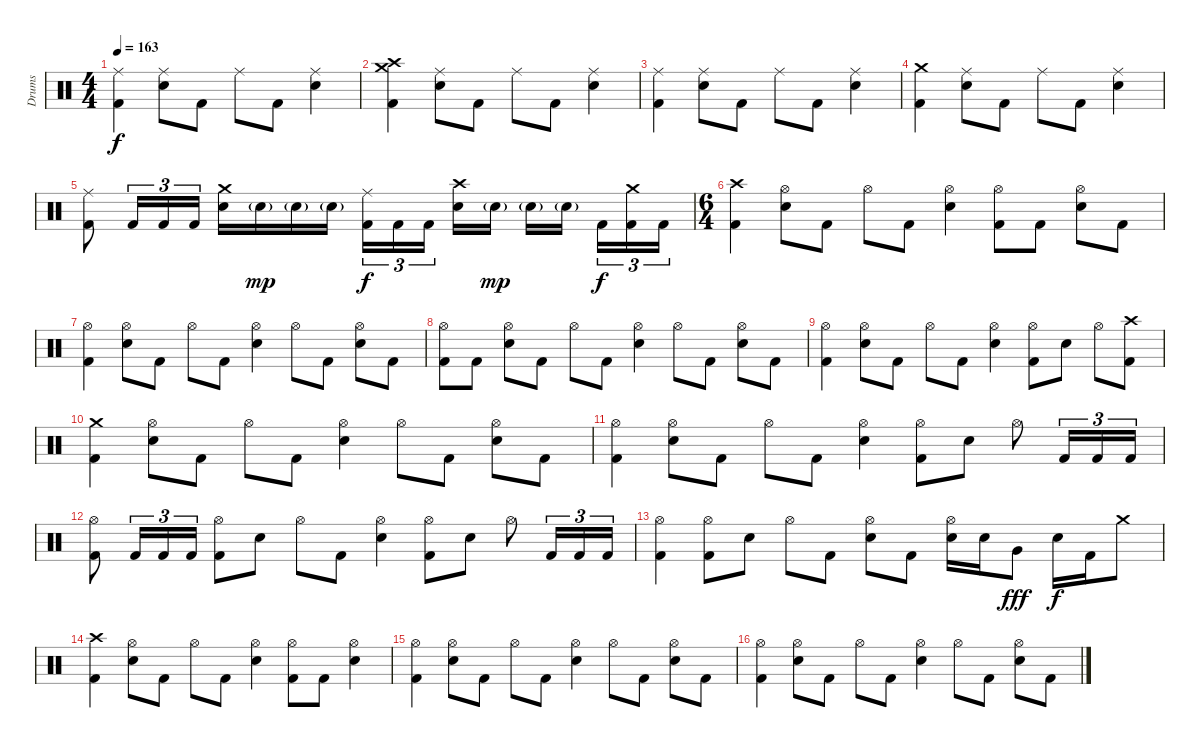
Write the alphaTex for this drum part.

\track ("Drums" "Drums") {instrument percussion}
\staff {score}
\articulation defaults
\ts (4 4)
\tempo 163
\clef neutral
\ks c
("Ride (middle)" "Kick (hit) 2").4{dy f} ("Ride (middle)" "Electric Snare (hit)").8 "Kick (hit) 2".8 "Ride (middle)".8 "Kick (hit) 2".8 ("Ride (middle)" "Electric Snare (hit)").4 |
("Crash high (hit)" "Crash medium (hit)" "Kick (hit) 2").4 ("Ride (middle)" "Electric Snare (hit)").8 "Kick (hit) 2".8 "Ride (middle)".8 "Kick (hit) 2".8 ("Ride (middle)" "Electric Snare (hit)").4 |
("Ride (middle)" "Kick (hit) 2").4 ("Ride (middle)" "Electric Snare (hit)").8 "Kick (hit) 2".8 "Ride (middle)".8 "Kick (hit) 2".8 ("Ride (middle)" "Electric Snare (hit)").4 |
("Crash medium (hit)" "Kick (hit) 2").4 ("Ride (middle)" "Electric Snare (hit)").8 "Kick (hit) 2".8 "Ride (middle)".8 "Kick (hit) 2".8 ("Ride (middle)" "Electric Snare (hit)").4 |
("Ride (middle)" "Kick (hit) 2").8 "Kick (hit) 2".16{tu (3 2)} "Kick (hit) 2".16{tu (3 2)} "Kick (hit) 2".16{tu (3 2)} ("Crash medium (hit)" "Electric Snare (hit)").16 "Electric Snare (hit)"{g}.16{dy mp} "Electric Snare (hit)"{g}.16 "Electric Snare (hit)"{g}.16 ("Ride (middle)" "Kick (hit) 2").16{tu (3 2) dy f} "Kick (hit) 2".16{tu (3 2)} "Kick (hit) 2".16{tu (3 2)} ("Crash high (hit)" "Electric Snare (hit)").16 "Electric Snare (hit)"{g}.16{dy mp} "Electric Snare (hit)"{g}.16 "Electric Snare (hit)"{g}.16 "Kick (hit) 2".16{tu (3 2) dy f} ("Crash medium (hit)" "Kick (hit) 2").16{tu (3 2)} "Kick (hit) 2".16{tu (3 2)} |
\ts (6 4)
("Crash high (hit)" "Kick (hit) 2").4 ("Hi-Hat (open)" "Electric Snare (hit)").8 "Kick (hit) 2".8 "Hi-Hat (open)".8 "Kick (hit) 2".8 ("Hi-Hat (open)" "Electric Snare (hit)").4 ("Hi-Hat (open)" "Kick (hit) 2").8 "Kick (hit) 2".8 ("Hi-Hat (open)" "Electric Snare (hit)").8 "Kick (hit) 2".8 |
("Hi-Hat (open)" "Kick (hit) 2").4 ("Hi-Hat (open)" "Electric Snare (hit)").8 "Kick (hit) 2".8 "Hi-Hat (open)".8 "Kick (hit) 2".8 ("Hi-Hat (open)" "Electric Snare (hit)").4 "Hi-Hat (open)".8 "Kick (hit) 2".8 ("Hi-Hat (open)" "Electric Snare (hit)").8 "Kick (hit) 2".8 |
("Hi-Hat (open)" "Kick (hit) 2").8 "Kick (hit) 2".8 ("Hi-Hat (open)" "Electric Snare (hit)").8 "Kick (hit) 2".8 "Hi-Hat (open)".8 "Kick (hit) 2".8 ("Hi-Hat (open)" "Electric Snare (hit)").4 "Hi-Hat (open)".8 "Kick (hit) 2".8 ("Hi-Hat (open)" "Electric Snare (hit)").8 "Kick (hit) 2".8 |
("Hi-Hat (open)" "Kick (hit) 2").4 ("Hi-Hat (open)" "Electric Snare (hit)").8 "Kick (hit) 2".8 "Hi-Hat (open)".8 "Kick (hit) 2".8 ("Hi-Hat (open)" "Electric Snare (hit)").4 ("Hi-Hat (open)" "Kick (hit) 2").8 "Electric Snare (hit)".8 "Hi-Hat (open)".8 ("Crash high (hit)" "Kick (hit) 2").8 |
("Crash medium (hit)" "Kick (hit) 2").4 ("Hi-Hat (open)" "Electric Snare (hit)").8 "Kick (hit) 2".8 "Hi-Hat (open)".8 "Kick (hit) 2".8 ("Hi-Hat (open)" "Electric Snare (hit)").4 "Hi-Hat (open)".8 "Kick (hit) 2".8 ("Hi-Hat (open)" "Electric Snare (hit)").8 "Kick (hit) 2".8 |
("Hi-Hat (open)" "Kick (hit) 2").4 ("Hi-Hat (open)" "Electric Snare (hit)").8 "Kick (hit) 2".8 "Hi-Hat (open)".8 "Kick (hit) 2".8 ("Hi-Hat (open)" "Electric Snare (hit)").4 ("Hi-Hat (open)" "Kick (hit) 2").8 "Electric Snare (hit)".8 "Hi-Hat (open)".8 "Kick (hit) 2".16{tu (3 2)} "Kick (hit) 2".16{tu (3 2)} "Kick (hit) 2".16{tu (3 2)} |
("Hi-Hat (open)" "Kick (hit) 2").8 "Kick (hit) 2".16{tu (3 2)} "Kick (hit) 2".16{tu (3 2)} "Kick (hit) 2".16{tu (3 2)} ("Hi-Hat (open)" "Kick (hit) 2").8 "Electric Snare (hit)".8 "Hi-Hat (open)".8 "Kick (hit) 2".8 ("Hi-Hat (open)" "Electric Snare (hit)").4 ("Hi-Hat (open)" "Kick (hit) 2").8 "Electric Snare (hit)".8 "Hi-Hat (open)".8 "Kick (hit) 2".16{tu (3 2)} "Kick (hit) 2".16{tu (3 2)} "Kick (hit) 2".16{tu (3 2)} |
("Hi-Hat (open)" "Kick (hit) 2").4 ("Hi-Hat (open)" "Kick (hit) 2").8 "Electric Snare (hit)".8 "Hi-Hat (open)".8 "Kick (hit) 2".8 ("Hi-Hat (open)" "Electric Snare (hit)").8 "Kick (hit) 2".8 ("Hi-Hat (open)" "Electric Snare (hit)").16 "Electric Snare (hit)".16 "Very Low Tom (hit)".8{dy fff} "Electric Snare (hit)".16{dy f} "Kick (hit) 2".16 "Crash medium (hit)".8 |
("Crash high (hit)" "Kick (hit) 2").4 ("Hi-Hat (open)" "Electric Snare (hit)").8 "Kick (hit) 2".8 "Hi-Hat (open)".8 "Kick (hit) 2".8 ("Hi-Hat (open)" "Electric Snare (hit)").4 ("Hi-Hat (open)" "Kick (hit) 2").8 "Kick (hit) 2".8 ("Hi-Hat (open)" "Electric Snare (hit)").4 |
("Hi-Hat (open)" "Kick (hit) 2").4 ("Hi-Hat (open)" "Electric Snare (hit)").8 "Kick (hit) 2".8 "Hi-Hat (open)".8 "Kick (hit) 2".8 ("Hi-Hat (open)" "Electric Snare (hit)").4 "Hi-Hat (open)".8 "Kick (hit) 2".8 ("Hi-Hat (open)" "Electric Snare (hit)").8 "Kick (hit) 2".8 |
("Hi-Hat (open)" "Kick (hit) 2").4 ("Hi-Hat (open)" "Electric Snare (hit)").8 "Kick (hit) 2".8 "Hi-Hat (open)".8 "Kick (hit) 2".8 ("Hi-Hat (open)" "Electric Snare (hit)").4 "Hi-Hat (open)".8 "Kick (hit) 2".8 ("Hi-Hat (open)" "Electric Snare (hit)").8 "Kick (hit) 2".8
